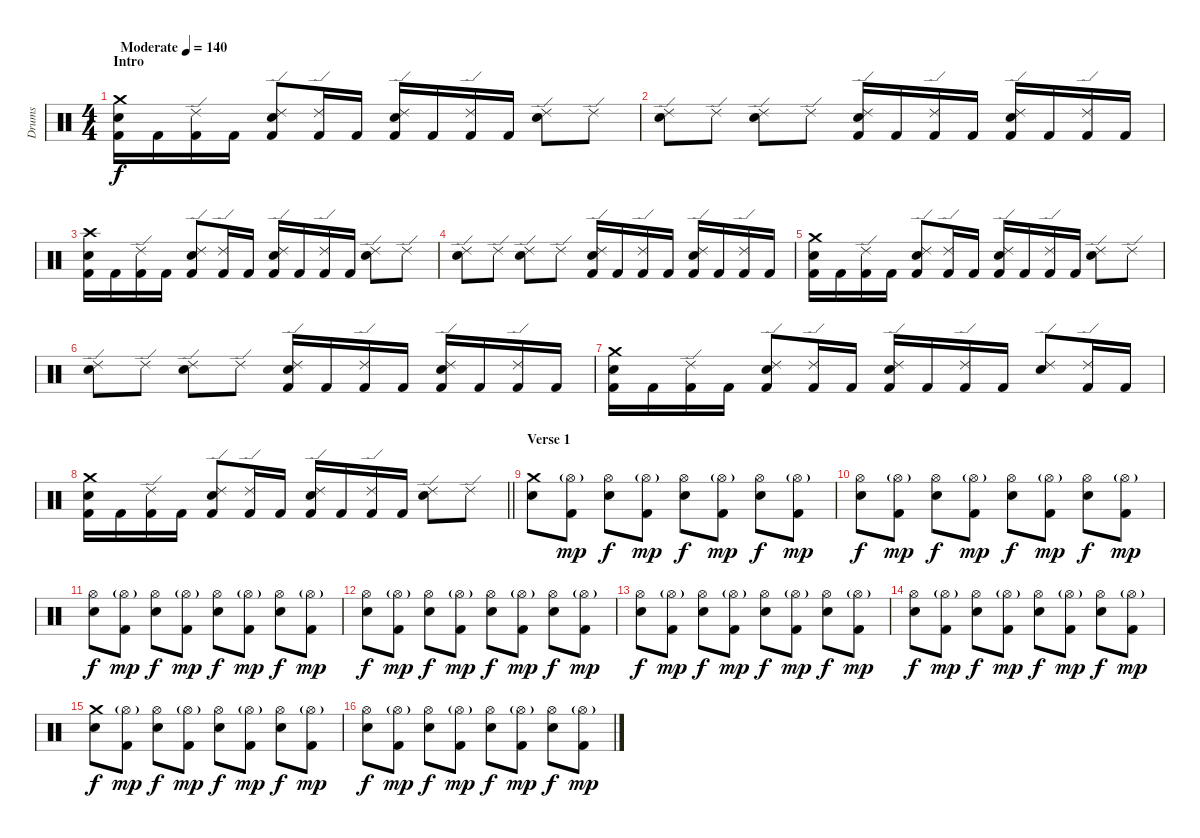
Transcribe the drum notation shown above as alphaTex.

\track ("Drums" "Drums") {instrument percussion}
\staff {score}
\articulation defaults
\ts (4 4)
\section ("" "Intro")
\tempo (140 "Moderate")
\clef neutral
\ks c
("Crash medium (hit)" "Snare (hit) 2" "Kick (hit) 2").16{dy f} "Kick (hit) 2".16 ("Ride (edge) 2" "Kick (hit) 2").16 "Kick (hit) 2".16 ("Ride (edge) 2" "Snare (hit) 2" "Kick (hit) 2").8 ("Ride (edge) 2" "Kick (hit) 2").16 "Kick (hit) 2".16 ("Ride (edge) 2" "Snare (hit) 2" "Kick (hit) 2").16 "Kick (hit) 2".16 ("Ride (edge) 2" "Kick (hit) 2").16 "Kick (hit) 2".16 ("Ride (edge) 2" "Snare (hit) 2").8 "Ride (edge) 2".8 |
("Ride (edge) 2" "Snare (hit) 2").8 "Ride (edge) 2".8 ("Ride (edge) 2" "Snare (hit) 2").8 "Ride (edge) 2".8 ("Ride (edge) 2" "Snare (hit) 2" "Kick (hit) 2").16 "Kick (hit) 2".16 ("Ride (edge) 2" "Kick (hit) 2").16 "Kick (hit) 2".16 ("Ride (edge) 2" "Snare (hit) 2" "Kick (hit) 2").16 "Kick (hit) 2".16 ("Ride (edge) 2" "Kick (hit) 2").16 "Kick (hit) 2".16 |
("Crash high (hit)" "Snare (hit) 2" "Kick (hit) 2").16 "Kick (hit) 2".16 ("Ride (edge) 2" "Kick (hit) 2").16 "Kick (hit) 2".16 ("Ride (edge) 2" "Snare (hit) 2" "Kick (hit) 2").8 ("Ride (edge) 2" "Kick (hit) 2").16 "Kick (hit) 2".16 ("Ride (edge) 2" "Snare (hit) 2" "Kick (hit) 2").16 "Kick (hit) 2".16 ("Ride (edge) 2" "Kick (hit) 2").16 "Kick (hit) 2".16 ("Ride (edge) 2" "Snare (hit) 2").8 "Ride (edge) 2".8 |
("Ride (edge) 2" "Snare (hit) 2").8 "Ride (edge) 2".8 ("Ride (edge) 2" "Snare (hit) 2").8 "Ride (edge) 2".8 ("Ride (edge) 2" "Snare (hit) 2" "Kick (hit) 2").16 "Kick (hit) 2".16 ("Ride (edge) 2" "Kick (hit) 2").16 "Kick (hit) 2".16 ("Ride (edge) 2" "Snare (hit) 2" "Kick (hit) 2").16 "Kick (hit) 2".16 ("Ride (edge) 2" "Kick (hit) 2").16 "Kick (hit) 2".16 |
("Crash medium (hit)" "Snare (hit) 2" "Kick (hit) 2").16 "Kick (hit) 2".16 ("Ride (edge) 2" "Kick (hit) 2").16 "Kick (hit) 2".16 ("Ride (edge) 2" "Snare (hit) 2" "Kick (hit) 2").8 ("Ride (edge) 2" "Kick (hit) 2").16 "Kick (hit) 2".16 ("Ride (edge) 2" "Snare (hit) 2" "Kick (hit) 2").16 "Kick (hit) 2".16 ("Ride (edge) 2" "Kick (hit) 2").16 "Kick (hit) 2".16 ("Ride (edge) 2" "Snare (hit) 2").8 "Ride (edge) 2".8 |
("Ride (edge) 2" "Snare (hit) 2").8 "Ride (edge) 2".8 ("Ride (edge) 2" "Snare (hit) 2").8 "Ride (edge) 2".8 ("Ride (edge) 2" "Snare (hit) 2" "Kick (hit) 2").16 "Kick (hit) 2".16 ("Ride (edge) 2" "Kick (hit) 2").16 "Kick (hit) 2".16 ("Ride (edge) 2" "Snare (hit) 2" "Kick (hit) 2").16 "Kick (hit) 2".16 ("Ride (edge) 2" "Kick (hit) 2").16 "Kick (hit) 2".16 |
("Crash medium (hit)" "Snare (hit) 2" "Kick (hit) 2").16 "Kick (hit) 2".16 ("Ride (edge) 2" "Kick (hit) 2").16 "Kick (hit) 2".16 ("Ride (edge) 2" "Snare (hit) 2" "Kick (hit) 2").8 ("Ride (edge) 2" "Kick (hit) 2").16 "Kick (hit) 2".16 ("Ride (edge) 2" "Snare (hit) 2" "Kick (hit) 2").16 "Kick (hit) 2".16 ("Ride (edge) 2" "Kick (hit) 2").16 "Kick (hit) 2".16 ("Ride (edge) 2" "Snare (hit) 2").8 ("Ride (edge) 2" "Kick (hit) 2").16 "Kick (hit) 2".16 |
\barLineRight lightlight
("Crash medium (hit)" "Snare (hit) 2" "Kick (hit) 2").16 "Kick (hit) 2".16 ("Ride (edge) 2" "Kick (hit) 2").16 "Kick (hit) 2".16 ("Ride (edge) 2" "Snare (hit) 2" "Kick (hit) 2").8 ("Ride (edge) 2" "Kick (hit) 2").16 "Kick (hit) 2".16 ("Ride (edge) 2" "Snare (hit) 2" "Kick (hit) 2").16 "Kick (hit) 2".16 ("Ride (edge) 2" "Kick (hit) 2").16 "Kick (hit) 2".16 ("Ride (edge) 2" "Snare (hit) 2").8 "Ride (edge) 2".8 |
\section ("" "Verse 1")
("Crash medium (hit)" "Snare (hit) 2").8 ("Hi-Hat (open)"{g} "Kick (hit) 2").8{dy mp} ("Hi-Hat (open)" "Snare (hit) 2").8{dy f} ("Hi-Hat (open)"{g} "Kick (hit) 2").8{dy mp} ("Hi-Hat (open)" "Snare (hit) 2").8{dy f} ("Hi-Hat (open)"{g} "Kick (hit) 2").8{dy mp} ("Hi-Hat (open)" "Snare (hit) 2").8{dy f} ("Hi-Hat (open)"{g} "Kick (hit) 2").8{dy mp} |
("Hi-Hat (open)" "Snare (hit) 2").8{dy f} ("Hi-Hat (open)"{g} "Kick (hit) 2").8{dy mp} ("Hi-Hat (open)" "Snare (hit) 2").8{dy f} ("Hi-Hat (open)"{g} "Kick (hit) 2").8{dy mp} ("Hi-Hat (open)" "Snare (hit) 2").8{dy f} ("Hi-Hat (open)"{g} "Kick (hit) 2").8{dy mp} ("Hi-Hat (open)" "Snare (hit) 2").8{dy f} ("Hi-Hat (open)"{g} "Kick (hit) 2").8{dy mp} |
("Hi-Hat (open)" "Snare (hit) 2").8{dy f} ("Hi-Hat (open)"{g} "Kick (hit) 2").8{dy mp} ("Hi-Hat (open)" "Snare (hit) 2").8{dy f} ("Hi-Hat (open)"{g} "Kick (hit) 2").8{dy mp} ("Hi-Hat (open)" "Snare (hit) 2").8{dy f} ("Hi-Hat (open)"{g} "Kick (hit) 2").8{dy mp} ("Hi-Hat (open)" "Snare (hit) 2").8{dy f} ("Hi-Hat (open)"{g} "Kick (hit) 2").8{dy mp} |
("Hi-Hat (open)" "Snare (hit) 2").8{dy f} ("Hi-Hat (open)"{g} "Kick (hit) 2").8{dy mp} ("Hi-Hat (open)" "Snare (hit) 2").8{dy f} ("Hi-Hat (open)"{g} "Kick (hit) 2").8{dy mp} ("Hi-Hat (open)" "Snare (hit) 2").8{dy f} ("Hi-Hat (open)"{g} "Kick (hit) 2").8{dy mp} ("Hi-Hat (open)" "Snare (hit) 2").8{dy f} ("Hi-Hat (open)"{g} "Kick (hit) 2").8{dy mp} |
("Hi-Hat (open)" "Snare (hit) 2").8{dy f} ("Hi-Hat (open)"{g} "Kick (hit) 2").8{dy mp} ("Hi-Hat (open)" "Snare (hit) 2").8{dy f} ("Hi-Hat (open)"{g} "Kick (hit) 2").8{dy mp} ("Hi-Hat (open)" "Snare (hit) 2").8{dy f} ("Hi-Hat (open)"{g} "Kick (hit) 2").8{dy mp} ("Hi-Hat (open)" "Snare (hit) 2").8{dy f} ("Hi-Hat (open)"{g} "Kick (hit) 2").8{dy mp} |
("Hi-Hat (open)" "Snare (hit) 2").8{dy f} ("Hi-Hat (open)"{g} "Kick (hit) 2").8{dy mp} ("Hi-Hat (open)" "Snare (hit) 2").8{dy f} ("Hi-Hat (open)"{g} "Kick (hit) 2").8{dy mp} ("Hi-Hat (open)" "Snare (hit) 2").8{dy f} ("Hi-Hat (open)"{g} "Kick (hit) 2").8{dy mp} ("Hi-Hat (open)" "Snare (hit) 2").8{dy f} ("Hi-Hat (open)"{g} "Kick (hit) 2").8{dy mp} |
("Crash medium (hit)" "Snare (hit) 2").8{dy f} ("Hi-Hat (open)"{g} "Kick (hit) 2").8{dy mp} ("Hi-Hat (open)" "Snare (hit) 2").8{dy f} ("Hi-Hat (open)"{g} "Kick (hit) 2").8{dy mp} ("Hi-Hat (open)" "Snare (hit) 2").8{dy f} ("Hi-Hat (open)"{g} "Kick (hit) 2").8{dy mp} ("Hi-Hat (open)" "Snare (hit) 2").8{dy f} ("Hi-Hat (open)"{g} "Kick (hit) 2").8{dy mp} |
("Hi-Hat (open)" "Snare (hit) 2").8{dy f} ("Hi-Hat (open)"{g} "Kick (hit) 2").8{dy mp} ("Hi-Hat (open)" "Snare (hit) 2").8{dy f} ("Hi-Hat (open)"{g} "Kick (hit) 2").8{dy mp} ("Hi-Hat (open)" "Snare (hit) 2").8{dy f} ("Hi-Hat (open)"{g} "Kick (hit) 2").8{dy mp} ("Hi-Hat (open)" "Snare (hit) 2").8{dy f} ("Hi-Hat (open)"{g} "Kick (hit) 2").8{dy mp}
